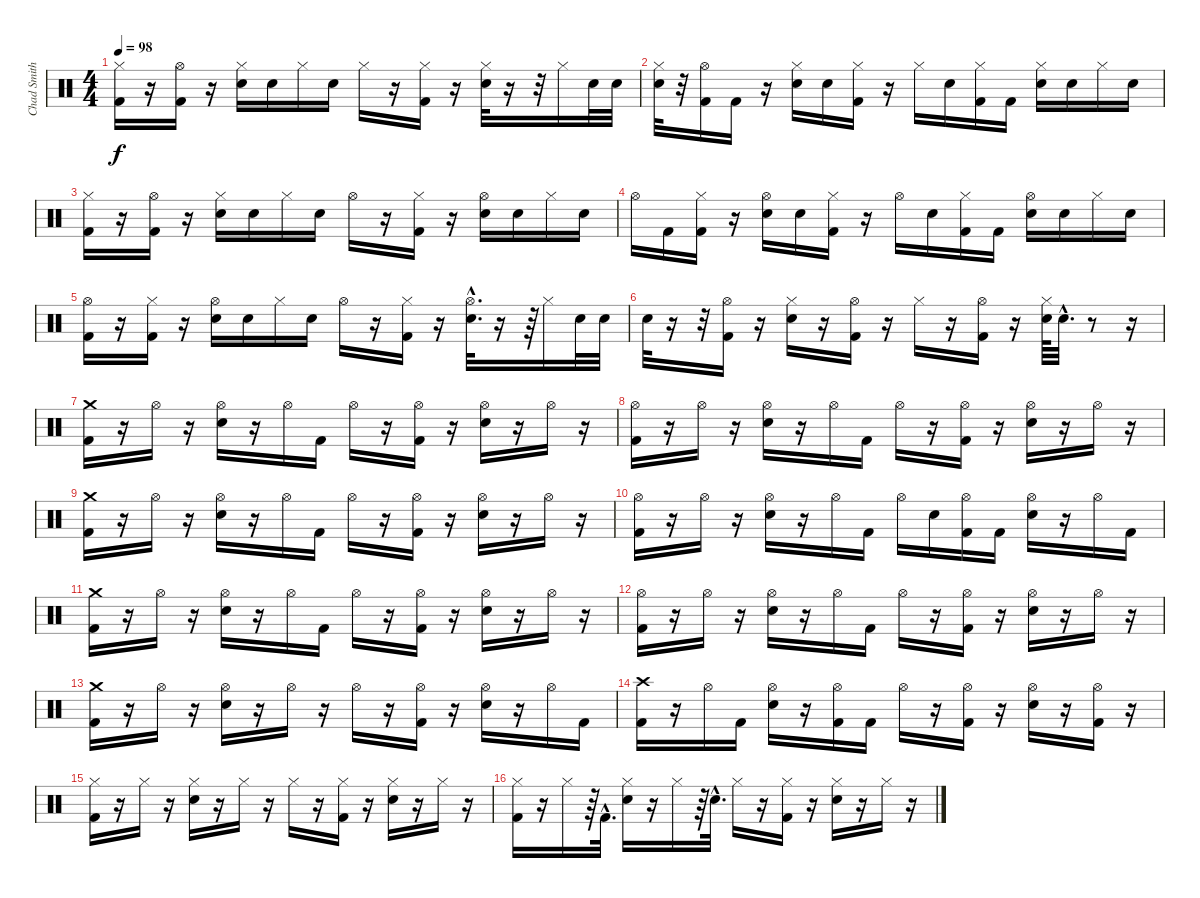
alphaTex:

\track ("Chad Smith" "Chad Smith") {instrument percussion}
\staff {score}
\articulation defaults
\ts (4 4)
\tempo 98
\clef neutral
\ks c
("Kick (hit) 2" "Hi-Hat (closed)").16{dy f} r.16 ("Hi-Hat (open)" "Kick (hit) 2").16 r.16 ("Hi-Hat (closed)" "Electric Snare (hit)").16 "Electric Snare (hit)".16 "Hi-Hat (closed)".16 "Electric Snare (hit)".16 "Hi-Hat (closed)".16 r.16 ("Hi-Hat (closed)" "Kick (hit) 2").16 r.16 ("Hi-Hat (closed)" "Electric Snare (hit)").32 r.16 r.32 "Hi-Hat (closed)".16 "Electric Snare (hit)".32 "Electric Snare (hit)".32 |
("Electric Snare (hit)" "Hi-Hat (closed)").32 r.32 ("Hi-Hat (open)" "Kick (hit) 2").16 "Kick (hit) 2".16 r.16 ("Hi-Hat (closed)" "Electric Snare (hit)").16 "Electric Snare (hit)".16 ("Hi-Hat (closed)" "Kick (hit) 2").16 r.16 "Hi-Hat (closed)".16 "Electric Snare (hit)".16 ("Hi-Hat (closed)" "Kick (hit) 2").16 "Kick (hit) 2".16 ("Hi-Hat (closed)" "Electric Snare (hit)").16 "Electric Snare (hit)".16 "Hi-Hat (closed)".16 "Electric Snare (hit)".16 |
("Kick (hit) 2" "Hi-Hat (closed)").16 r.16 ("Hi-Hat (open)" "Kick (hit) 2").16 r.16 ("Hi-Hat (closed)" "Electric Snare (hit)").16 "Electric Snare (hit)".16 "Hi-Hat (closed)".16 "Electric Snare (hit)".16 "Hi-Hat (open)".16 r.16 ("Hi-Hat (closed)" "Kick (hit) 2").16 r.16 ("Hi-Hat (open)" "Electric Snare (hit)").16 "Electric Snare (hit)".16 "Hi-Hat (closed)".16 "Electric Snare (hit)".16 |
"Hi-Hat (open)".16 "Kick (hit) 2".16 ("Hi-Hat (closed)" "Kick (hit) 2").16 r.16 ("Hi-Hat (open)" "Electric Snare (hit)").16 "Electric Snare (hit)".16 ("Hi-Hat (closed)" "Kick (hit) 2").16 r.16 "Hi-Hat (open)".16 "Electric Snare (hit)".16 ("Hi-Hat (closed)" "Kick (hit) 2").16 "Kick (hit) 2".16 ("Hi-Hat (open)" "Electric Snare (hit)").16 "Electric Snare (hit)".16 "Hi-Hat (closed)".16 "Electric Snare (hit)".16 |
("Kick (hit) 2" "Hi-Hat (open)").16 r.16 ("Hi-Hat (closed)" "Kick (hit) 2").16 r.16 ("Hi-Hat (open)" "Electric Snare (hit)").16 "Electric Snare (hit)".16 "Hi-Hat (closed)".16 "Electric Snare (hit)".16 "Hi-Hat (open)".16 r.16 ("Hi-Hat (closed)" "Kick (hit) 2").16 r.16 ("Hi-Hat (open)"{hac} "Electric Snare (hit)"{hac}).32{d} r.16 r.64 "Hi-Hat (closed)".16 "Electric Snare (hit)".32 "Electric Snare (hit)".32 |
"Electric Snare (hit)".32 r.16 r.32 ("Kick (hit) 2" "Hi-Hat (open)").16 r.16 ("Electric Snare (hit)" "Hi-Hat (closed)").16 r.16 ("Kick (hit) 2" "Hi-Hat (open)").16 r.16 "Hi-Hat (closed)".16 r.16 ("Kick (hit) 2" "Hi-Hat (open)").16 r.16 ("Hi-Hat (closed)" "Electric Snare (hit)").64 "Electric Snare (hit)"{hac}.32{d} r.8 r.16 |
("Kick (hit) 2" "Crash medium (hit)").16 r.16 "Hi-Hat (open)".16 r.16 ("Electric Snare (hit)" "Hi-Hat (open)").16 r.16 "Hi-Hat (open)".16 "Kick (hit) 2".16 "Hi-Hat (open)".16 r.16 ("Hi-Hat (open)" "Kick (hit) 2").16 r.16 ("Hi-Hat (open)" "Electric Snare (hit)").16 r.16 "Hi-Hat (open)".16 r.16 |
("Hi-Hat (open)" "Kick (hit) 2").16 r.16 "Hi-Hat (open)".16 r.16 ("Hi-Hat (open)" "Electric Snare (hit)").16 r.16 "Hi-Hat (open)".16 "Kick (hit) 2".16 "Hi-Hat (open)".16 r.16 ("Hi-Hat (open)" "Kick (hit) 2").16 r.16 ("Hi-Hat (open)" "Electric Snare (hit)").16 r.16 "Hi-Hat (open)".16 r.16 |
("Kick (hit) 2" "Crash medium (hit)").16 r.16 "Hi-Hat (open)".16 r.16 ("Electric Snare (hit)" "Hi-Hat (open)").16 r.16 "Hi-Hat (open)".16 "Kick (hit) 2".16 "Hi-Hat (open)".16 r.16 ("Hi-Hat (open)" "Kick (hit) 2").16 r.16 ("Hi-Hat (open)" "Electric Snare (hit)").16 r.16 "Hi-Hat (open)".16 r.16 |
("Hi-Hat (open)" "Kick (hit) 2").16 r.16 "Hi-Hat (open)".16 r.16 ("Hi-Hat (open)" "Electric Snare (hit)").16 r.16 "Hi-Hat (open)".16 "Kick (hit) 2".16 "Hi-Hat (open)".16 "Electric Snare (hit)".16 ("Hi-Hat (open)" "Kick (hit) 2").16 "Kick (hit) 2".16 ("Hi-Hat (open)" "Electric Snare (hit)").16 r.16 "Hi-Hat (open)".16 "Kick (hit) 2".16 |
("Kick (hit) 2" "Crash medium (hit)").16 r.16 "Hi-Hat (open)".16 r.16 ("Electric Snare (hit)" "Hi-Hat (open)").16 r.16 "Hi-Hat (open)".16 "Kick (hit) 2".16 "Hi-Hat (open)".16 r.16 ("Hi-Hat (open)" "Kick (hit) 2").16 r.16 ("Hi-Hat (open)" "Electric Snare (hit)").16 r.16 "Hi-Hat (open)".16 r.16 |
("Hi-Hat (open)" "Kick (hit) 2").16 r.16 "Hi-Hat (open)".16 r.16 ("Hi-Hat (open)" "Electric Snare (hit)").16 r.16 "Hi-Hat (open)".16 "Kick (hit) 2".16 "Hi-Hat (open)".16 r.16 ("Hi-Hat (open)" "Kick (hit) 2").16 r.16 ("Hi-Hat (open)" "Electric Snare (hit)").16 r.16 "Hi-Hat (open)".16 r.16 |
("Kick (hit) 2" "Crash medium (hit)").16 r.16 "Hi-Hat (open)".16 r.16 ("Electric Snare (hit)" "Hi-Hat (open)").16 r.16 "Hi-Hat (open)".16 r.16 "Hi-Hat (open)".16 r.16 ("Kick (hit) 2" "Hi-Hat (open)").16 r.16 ("Hi-Hat (open)" "Electric Snare (hit)").16 r.16 "Hi-Hat (open)".16 "Kick (hit) 2".16 |
("Crash high (hit)" "Kick (hit) 2").16 r.16 "Hi-Hat (open)".16 "Kick (hit) 2".16 ("Hi-Hat (open)" "Electric Snare (hit)").16 r.16 ("Kick (hit) 2" "Hi-Hat (open)").16 "Kick (hit) 2".16 "Hi-Hat (open)".16 r.16 ("Hi-Hat (open)" "Kick (hit) 2").16 r.16 ("Hi-Hat (open)" "Electric Snare (hit)").16 r.16 ("Kick (hit) 2" "Hi-Hat (open)").16 r.16 |
("Kick (hit) 2" "Hi-Hat (closed)").16 r.16 "Hi-Hat (closed)".16 r.16 ("Hi-Hat (closed)" "Electric Snare (hit)").16 r.16 "Hi-Hat (closed)".16 r.16 "Hi-Hat (closed)".16 r.16 ("Hi-Hat (closed)" "Kick (hit) 2").16 r.16 ("Hi-Hat (closed)" "Electric Snare (hit)").16 r.16 "Hi-Hat (closed)".16 r.16 |
("Kick (hit) 2" "Hi-Hat (closed)").16 r.16 "Hi-Hat (closed)".16 r.64 "Kick (hit) 2"{hac}.32{d} ("Hi-Hat (closed)" "Electric Snare (hit)").16 r.16 "Hi-Hat (closed)".16 r.64 "Electric Snare (hit)"{hac}.32{d} "Hi-Hat (closed)".16 r.16 ("Hi-Hat (closed)" "Kick (hit) 2").16 r.16 ("Hi-Hat (closed)" "Electric Snare (hit)").16 r.16 "Hi-Hat (closed)".16 r.16
